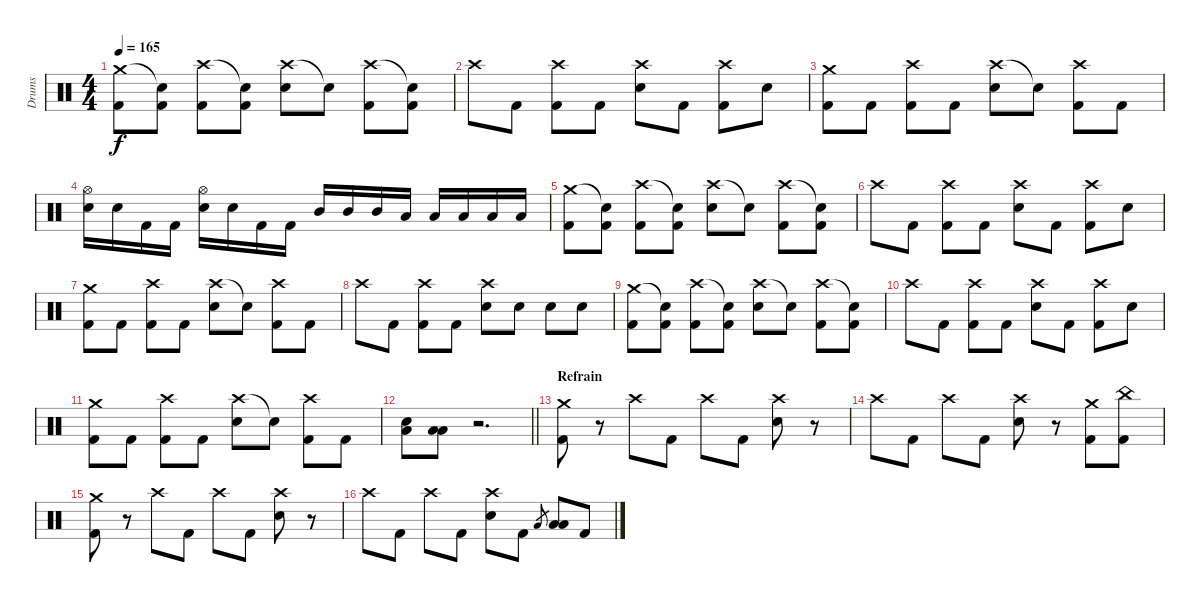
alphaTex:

\track ("Drums" "Drums") {instrument percussion}
\staff {score}
\articulation defaults
\ts (4 4)
\tempo 165
\clef neutral
\ks c
("Crash medium (hit)" "Kick (hit) 2").8{dy f} ("Snare (hit)"{t} "Kick (hit) 2").8 ("Crash high (hit)" "Kick (hit) 2").8 ("Snare (hit)"{t} "Kick (hit) 2").8 ("Crash high (hit)" "Electric Snare (hit)").8 "Snare (hit)"{t}.8 ("Crash high (hit)" "Kick (hit) 2").8 ("Snare (hit)"{t} "Kick (hit) 2").8 |
"Crash high (hit)".8 "Kick (hit) 2".8 ("Crash high (hit)" "Kick (hit) 2").8 "Kick (hit) 2".8 ("Crash high (hit)" "Electric Snare (hit)").8 "Kick (hit) 2".8 ("Crash high (hit)" "Kick (hit) 2").8 "Electric Snare (hit)".8 |
("Crash medium (hit)" "Kick (hit) 2").8 "Kick (hit) 2".8 ("Crash high (hit)" "Kick (hit) 2").8 "Kick (hit) 2".8 ("Crash high (hit)" "Electric Snare (hit)").8 "Snare (hit)"{t}.8 ("Crash high (hit)" "Kick (hit) 2").8 "Kick (hit) 2".8 |
("Hi-Hat (open)" "Electric Snare (hit)").16 "Electric Snare (hit)".16 "Kick (hit) 2".16 "Kick (hit) 2".16 ("Hi-Hat (open)" "Electric Snare (hit)").16 "Electric Snare (hit)".16 "Kick (hit) 2".16 "Kick (hit) 2".16 "Mid Tom (hit)".16 "Mid Tom (hit)".16 "Mid Tom (hit)".16 "Low Tom (hit)".16 "Low Tom (hit)".16 "Low Tom (hit)".16 "Low Floor Tom (hit)".16 "Low Floor Tom (hit)".16 |
("Crash medium (hit)" "Kick (hit) 2").8 ("Snare (hit)"{t} "Kick (hit) 2").8 ("Crash high (hit)" "Kick (hit) 2").8 ("Snare (hit)"{t} "Kick (hit) 2").8 ("Crash high (hit)" "Electric Snare (hit)").8 "Snare (hit)"{t}.8 ("Crash high (hit)" "Kick (hit) 2").8 ("Snare (hit)"{t} "Kick (hit) 2").8 |
"Crash high (hit)".8 "Kick (hit) 2".8 ("Crash high (hit)" "Kick (hit) 2").8 "Kick (hit) 2".8 ("Crash high (hit)" "Electric Snare (hit)").8 "Kick (hit) 2".8 ("Crash high (hit)" "Kick (hit) 2").8 "Electric Snare (hit)".8 |
("Crash medium (hit)" "Kick (hit) 2").8 "Kick (hit) 2".8 ("Crash high (hit)" "Kick (hit) 2").8 "Kick (hit) 2".8 ("Crash high (hit)" "Electric Snare (hit)").8 "Snare (hit)"{t}.8 ("Crash high (hit)" "Kick (hit) 2").8 "Kick (hit) 2".8 |
"Crash high (hit)".8 "Kick (hit) 2".8 ("Crash high (hit)" "Kick (hit) 2").8 "Kick (hit) 2".8 ("Crash high (hit)" "Electric Snare (hit)").8 "Electric Snare (hit)".8 "Electric Snare (hit)".8 "Electric Snare (hit)".8 |
("Crash medium (hit)" "Kick (hit) 2").8 ("Snare (hit)"{t} "Kick (hit) 2").8 ("Crash high (hit)" "Kick (hit) 2").8 ("Snare (hit)"{t} "Kick (hit) 2").8 ("Crash high (hit)" "Electric Snare (hit)").8 "Snare (hit)"{t}.8 ("Crash high (hit)" "Kick (hit) 2").8 ("Snare (hit)"{t} "Kick (hit) 2").8 |
"Crash high (hit)".8 "Kick (hit) 2".8 ("Crash high (hit)" "Kick (hit) 2").8 "Kick (hit) 2".8 ("Crash high (hit)" "Electric Snare (hit)").8 "Kick (hit) 2".8 ("Crash high (hit)" "Kick (hit) 2").8 "Electric Snare (hit)".8 |
("Crash medium (hit)" "Kick (hit) 2").8 "Kick (hit) 2".8 ("Crash high (hit)" "Kick (hit) 2").8 "Kick (hit) 2".8 ("Crash high (hit)" "Electric Snare (hit)").8 "Snare (hit)"{t}.8 ("Crash high (hit)" "Kick (hit) 2").8 "Kick (hit) 2".8 |
\barLineRight lightlight
("Electric Snare (hit)" "Low Floor Tom (hit)").8 ("Low Tom (hit)" "Low Floor Tom (hit)").8 r.2{d} |
\section ("" "Refrain")
("Crash medium (hit)" "Kick (hit) 2").8 r.8 "Crash high (hit)".8 "Kick (hit) 2".8 "Crash high (hit)".8 "Kick (hit) 2".8 ("Crash high (hit)" "Electric Snare (hit)").8 r.8 |
"Crash high (hit)".8 "Kick (hit) 2".8 "Crash high (hit)".8 "Kick (hit) 2".8 ("Crash high (hit)" "Electric Snare (hit)").8 r.8 ("Crash medium (hit)" "Kick (hit) 2").8 ("China (hit)" "Kick (hit) 2").8 |
("Crash medium (hit)" "Kick (hit) 2").8 r.8 "Crash high (hit)".8 "Kick (hit) 2".8 "Crash high (hit)".8 "Kick (hit) 2".8 ("Crash high (hit)" "Electric Snare (hit)").8 r.8 |
"Crash high (hit)".8 "Kick (hit) 2".8 "Crash high (hit)".8 "Kick (hit) 2".8 ("Crash high (hit)" "Electric Snare (hit)").8 "Kick (hit) 2".8 "Low Tom (hit)".8{gr} ("Low Tom (hit)" "Low Floor Tom (hit)").8 "Kick (hit) 2".8
